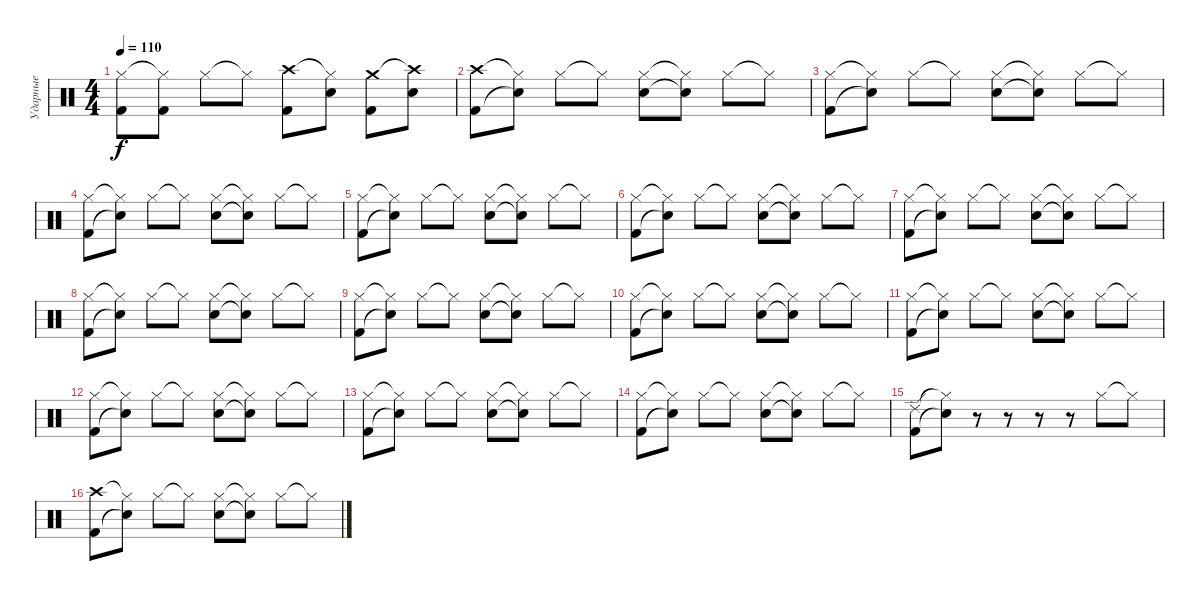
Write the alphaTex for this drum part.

\track ("Ударные" "Ударные") {instrument percussion}
\staff {score}
\articulation defaults
\ts (4 4)
\tempo 110
\clef neutral
\ks c
("Hi-Hat (closed)" "Kick (hit) 2").8{dy f} ("Hi-Hat (closed)"{t} "Kick (hit) 2").8 "Hi-Hat (closed)".8 "Hi-Hat (closed)"{t}.8 ("Crash high (hit)" "Kick (hit) 2").8 ("Hi-Hat (closed)"{t} "Snare (hit) 2").8 ("Crash medium (hit)" "Kick (hit) 2").8 ("Crash high (hit)"{t} "Snare (hit) 2").8 |
("Crash high (hit)" "Kick (hit) 2").8 ("Hi-Hat (closed)"{t} "Snare (hit)"{t}).8 "Hi-Hat (closed)".8 "Hi-Hat (closed)"{t}.8 ("Hi-Hat (closed)" "Snare (hit) 2").8 ("Hi-Hat (closed)"{t} "Snare (hit)"{t}).8 "Hi-Hat (closed)".8 "Hi-Hat (closed)"{t}.8 |
("Hi-Hat (closed)" "Kick (hit) 2").8 ("Hi-Hat (closed)"{t} "Snare (hit)"{t}).8 "Hi-Hat (closed)".8 "Hi-Hat (closed)"{t}.8 ("Hi-Hat (closed)" "Snare (hit) 2").8 ("Hi-Hat (closed)"{t} "Snare (hit)"{t}).8 "Hi-Hat (closed)".8 "Hi-Hat (closed)"{t}.8 |
("Hi-Hat (closed)" "Kick (hit) 2").8 ("Hi-Hat (closed)"{t} "Snare (hit)"{t}).8 "Hi-Hat (closed)".8 "Hi-Hat (closed)"{t}.8 ("Hi-Hat (closed)" "Snare (hit) 2").8 ("Hi-Hat (closed)"{t} "Snare (hit)"{t}).8 "Hi-Hat (closed)".8 "Hi-Hat (closed)"{t}.8 |
("Hi-Hat (closed)" "Kick (hit) 2").8 ("Hi-Hat (closed)"{t} "Snare (hit)"{t}).8 "Hi-Hat (closed)".8 "Hi-Hat (closed)"{t}.8 ("Hi-Hat (closed)" "Snare (hit) 2").8 ("Hi-Hat (closed)"{t} "Snare (hit)"{t}).8 "Hi-Hat (closed)".8 "Hi-Hat (closed)"{t}.8 |
("Hi-Hat (closed)" "Kick (hit) 2").8 ("Hi-Hat (closed)"{t} "Snare (hit)"{t}).8 "Hi-Hat (closed)".8 "Hi-Hat (closed)"{t}.8 ("Hi-Hat (closed)" "Snare (hit) 2").8 ("Hi-Hat (closed)"{t} "Snare (hit)"{t}).8 "Hi-Hat (closed)".8 "Hi-Hat (closed)"{t}.8 |
("Hi-Hat (closed)" "Kick (hit) 2").8 ("Hi-Hat (closed)"{t} "Snare (hit)"{t}).8 "Hi-Hat (closed)".8 "Hi-Hat (closed)"{t}.8 ("Hi-Hat (closed)" "Snare (hit) 2").8 ("Hi-Hat (closed)"{t} "Snare (hit)"{t}).8 "Hi-Hat (closed)".8 "Hi-Hat (closed)"{t}.8 |
("Hi-Hat (closed)" "Kick (hit) 2").8 ("Hi-Hat (closed)"{t} "Snare (hit)"{t}).8 "Hi-Hat (closed)".8 "Hi-Hat (closed)"{t}.8 ("Hi-Hat (closed)" "Snare (hit) 2").8 ("Hi-Hat (closed)"{t} "Snare (hit)"{t}).8 "Hi-Hat (closed)".8 "Hi-Hat (closed)"{t}.8 |
("Hi-Hat (closed)" "Kick (hit) 2").8 ("Hi-Hat (closed)"{t} "Snare (hit)"{t}).8 "Hi-Hat (closed)".8 "Hi-Hat (closed)"{t}.8 ("Hi-Hat (closed)" "Snare (hit) 2").8 ("Hi-Hat (closed)"{t} "Snare (hit)"{t}).8 "Hi-Hat (closed)".8 "Hi-Hat (closed)"{t}.8 |
("Hi-Hat (closed)" "Kick (hit) 2").8 ("Hi-Hat (closed)"{t} "Snare (hit)"{t}).8 "Hi-Hat (closed)".8 "Hi-Hat (closed)"{t}.8 ("Hi-Hat (closed)" "Snare (hit) 2").8 ("Hi-Hat (closed)"{t} "Snare (hit)"{t}).8 "Hi-Hat (closed)".8 "Hi-Hat (closed)"{t}.8 |
("Hi-Hat (closed)" "Kick (hit) 2").8 ("Hi-Hat (closed)"{t} "Snare (hit)"{t}).8 "Hi-Hat (closed)".8 "Hi-Hat (closed)"{t}.8 ("Hi-Hat (closed)" "Snare (hit) 2").8 ("Hi-Hat (closed)"{t} "Snare (hit)"{t}).8 "Hi-Hat (closed)".8 "Hi-Hat (closed)"{t}.8 |
("Hi-Hat (closed)" "Kick (hit) 2").8 ("Hi-Hat (closed)"{t} "Snare (hit)"{t}).8 "Hi-Hat (closed)".8 "Hi-Hat (closed)"{t}.8 ("Hi-Hat (closed)" "Snare (hit) 2").8 ("Hi-Hat (closed)"{t} "Snare (hit)"{t}).8 "Hi-Hat (closed)".8 "Hi-Hat (closed)"{t}.8 |
("Hi-Hat (closed)" "Kick (hit) 2").8 ("Hi-Hat (closed)"{t} "Snare (hit)"{t}).8 "Hi-Hat (closed)".8 "Hi-Hat (closed)"{t}.8 ("Hi-Hat (closed)" "Snare (hit) 2").8 ("Hi-Hat (closed)"{t} "Snare (hit)"{t}).8 "Hi-Hat (closed)".8 "Hi-Hat (closed)"{t}.8 |
("Hi-Hat (closed)" "Kick (hit) 2").8 ("Hi-Hat (closed)"{t} "Snare (hit)"{t}).8 "Hi-Hat (closed)".8 "Hi-Hat (closed)"{t}.8 ("Hi-Hat (closed)" "Snare (hit) 2").8 ("Hi-Hat (closed)"{t} "Snare (hit)"{t}).8 "Hi-Hat (closed)".8 "Hi-Hat (closed)"{t}.8 |
("Ride (edge) 2" "Kick (hit) 2").8 ("Hi-Hat (closed)"{t} "Snare (hit)"{t}).8 r.8 r.8 r.8 r.8 "Hi-Hat (closed)".8 "Hi-Hat (closed)"{t}.8 |
("Crash high (hit)" "Kick (hit) 2").8 ("Hi-Hat (closed)"{t} "Snare (hit)"{t}).8 "Hi-Hat (closed)".8 "Hi-Hat (closed)"{t}.8 ("Hi-Hat (closed)" "Snare (hit) 2").8 ("Hi-Hat (closed)"{t} "Snare (hit)"{t}).8 "Hi-Hat (closed)".8 "Hi-Hat (closed)"{t}.8
